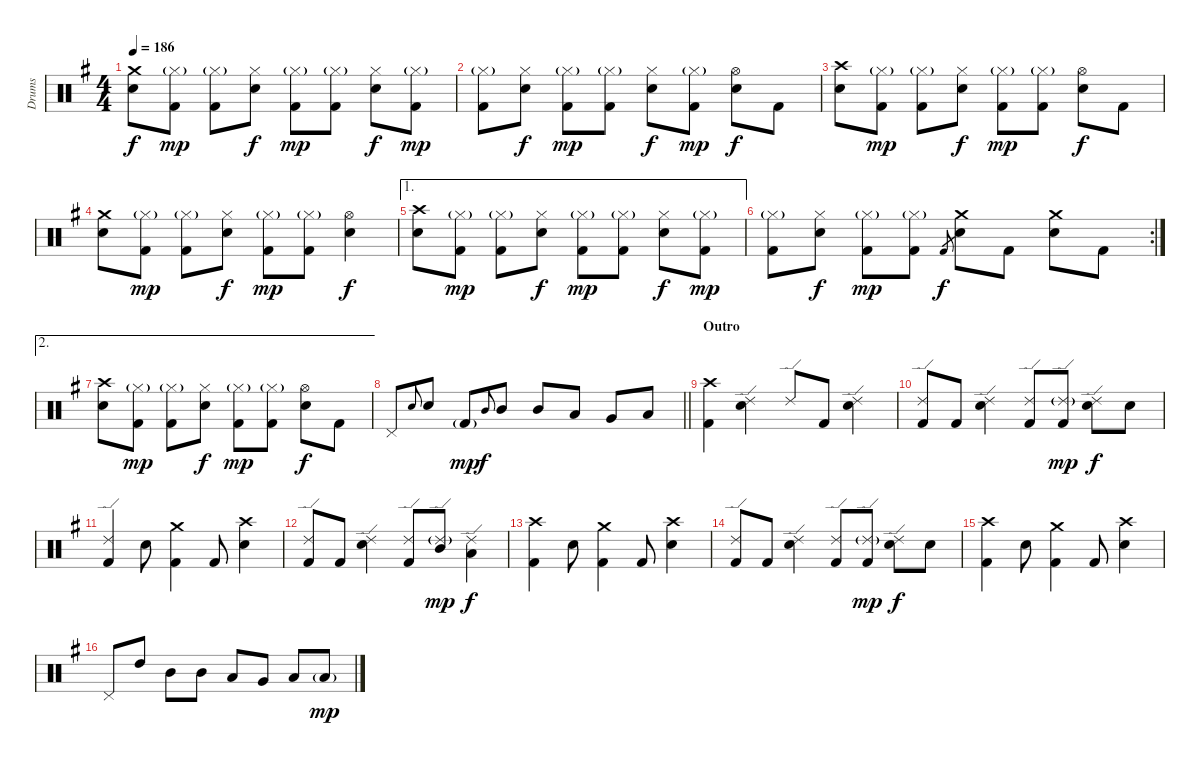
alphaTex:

\track ("Drums" "Drums") {instrument percussion}
\staff {score}
\articulation defaults
\ts (4 4)
\tempo 186
\clef neutral
\ks g
("Crash medium (hit)" "Snare (hit) 2").8{dy f} ("Hi-Hat (closed)"{g} "Kick (hit) 2").8{dy mp} ("Hi-Hat (closed)"{g} "Kick (hit) 2").8 ("Hi-Hat (closed)" "Snare (hit) 2").8{dy f} ("Hi-Hat (closed)"{g} "Kick (hit) 2").8{dy mp} ("Hi-Hat (closed)"{g} "Kick (hit) 2").8 ("Hi-Hat (closed)" "Snare (hit) 2").8{dy f} ("Hi-Hat (closed)"{g} "Kick (hit) 2").8{dy mp} |
("Hi-Hat (closed)"{g} "Kick (hit) 2").8 ("Hi-Hat (closed)" "Snare (hit) 2").8{dy f} ("Hi-Hat (closed)"{g} "Kick (hit) 2").8{dy mp} ("Hi-Hat (closed)"{g} "Kick (hit) 2").8 ("Hi-Hat (closed)" "Snare (hit) 2").8{dy f} ("Hi-Hat (closed)"{g} "Kick (hit) 2").8{dy mp} ("Hi-Hat (open)" "Snare (hit) 2").8{dy f} "Kick (hit) 2".8 |
("Crash high (hit)" "Snare (hit) 2").8 ("Hi-Hat (closed)"{g} "Kick (hit) 2").8{dy mp} ("Hi-Hat (closed)"{g} "Kick (hit) 2").8 ("Hi-Hat (closed)" "Snare (hit) 2").8{dy f} ("Hi-Hat (closed)"{g} "Kick (hit) 2").8{dy mp} ("Hi-Hat (closed)"{g} "Kick (hit) 2").8 ("Hi-Hat (open)" "Snare (hit) 2").8{dy f} "Kick (hit) 2".8 |
("Crash medium (hit)" "Snare (hit) 2").8 ("Hi-Hat (closed)"{g} "Kick (hit) 2").8{dy mp} ("Hi-Hat (closed)"{g} "Kick (hit) 2").8 ("Hi-Hat (closed)" "Snare (hit) 2").8{dy f} ("Hi-Hat (closed)"{g} "Kick (hit) 2").8{dy mp} ("Hi-Hat (closed)"{g} "Kick (hit) 2").8 ("Hi-Hat (open)" "Snare (hit) 2").4{dy f} |
\ae 1
("Crash high (hit)" "Snare (hit) 2").8 ("Hi-Hat (closed)"{g} "Kick (hit) 2").8{dy mp} ("Hi-Hat (closed)"{g} "Kick (hit) 2").8 ("Hi-Hat (closed)" "Snare (hit) 2").8{dy f} ("Hi-Hat (closed)"{g} "Kick (hit) 2").8{dy mp} ("Hi-Hat (closed)"{g} "Kick (hit) 2").8 ("Hi-Hat (closed)" "Snare (hit) 2").8{dy f} ("Hi-Hat (closed)"{g} "Kick (hit) 2").8{dy mp} |
\rc 2
("Hi-Hat (closed)"{g} "Kick (hit) 2").8 ("Hi-Hat (closed)" "Snare (hit) 2").8{dy f} ("Hi-Hat (closed)"{g} "Kick (hit) 2").8{dy mp} ("Hi-Hat (closed)"{g} "Kick (hit) 2").8 "Kick (hit) 2".8{gr dy f} ("Crash medium (hit)" "Snare (hit) 2").8 "Kick (hit) 2".8 ("Crash medium (hit)" "Snare (hit) 2").8 "Kick (hit) 2".8 |
\ae 2
("Crash high (hit)" "Snare (hit) 2").8 ("Hi-Hat (closed)"{g} "Kick (hit) 2").8{dy mp} ("Hi-Hat (closed)"{g} "Kick (hit) 2").8 ("Hi-Hat (closed)" "Snare (hit) 2").8{dy f} ("Hi-Hat (closed)"{g} "Kick (hit) 2").8{dy mp} ("Hi-Hat (closed)"{g} "Kick (hit) 2").8 ("Hi-Hat (open)" "Snare (hit) 2").8{dy f} "Kick (hit) 2".8 |
\barLineRight lightlight "Pedal Hi-Hat (hit)".8 "Snare (hit) 2".8{gr onbeat} "Snare (hit) 2".8 "Kick (hit) 2"{g}.8{dy mp} "Mid Tom (hit)".8{gr onbeat dy f} "Mid Tom (hit)".8 "Mid Tom (hit)".8 "Low Tom (hit)".8 "Very Low Tom (hit)".8 "Low Floor Tom (hit)".8
|
\section ("" "Outro")
("Crash high (hit)" "Kick (hit) 2").4 ("Ride (edge) 2" "Snare (hit) 2").4 "Ride (edge) 2".8 "Kick (hit) 2".8 ("Ride (edge) 2" "Snare (hit) 2").4 |
("Ride (edge) 2" "Kick (hit) 2").8 "Kick (hit) 2".8 ("Ride (edge) 2" "Snare (hit) 2").4 ("Ride (edge) 2" "Kick (hit) 2").8 ("Ride (edge) 2"{g} "Kick (hit) 2").8{dy mp} ("Ride (edge) 2" "Snare (hit) 2").8{dy f} "Snare (hit) 2".8 |
("Ride (edge) 2" "Kick (hit) 2").4 "Snare (hit) 2".8 ("Crash medium (hit)" "Kick (hit) 2").4 "Kick (hit) 2".8 ("Crash high (hit)" "Snare (hit) 2").4 |
("Ride (edge) 2" "Kick (hit) 2").8 "Kick (hit) 2".8 ("Ride (edge) 2" "Snare (hit) 2").4 ("Ride (edge) 2" "Kick (hit) 2").8 ("Ride (edge) 2"{g} "Mid Tom (hit)").8{dy mp} ("Ride (edge) 2" "Low Tom (hit)").4{dy f} |
("Crash high (hit)" "Kick (hit) 2").4 "Snare (hit) 2".8 ("Crash medium (hit)" "Kick (hit) 2").4 "Kick (hit) 2".8 ("Crash high (hit)" "Snare (hit) 2").4 |
("Ride (edge) 2" "Kick (hit) 2").8 "Kick (hit) 2".8 ("Ride (edge) 2" "Snare (hit) 2").4 ("Ride (edge) 2" "Kick (hit) 2").8 ("Ride (edge) 2"{g} "Kick (hit) 2").8{dy mp} ("Ride (edge) 2" "Snare (hit) 2").8{dy f} "Snare (hit) 2".8 |
("Crash high (hit)" "Kick (hit) 2").4 "Snare (hit) 2".8 ("Crash medium (hit)" "Kick (hit) 2").4 "Kick (hit) 2".8 ("Crash high (hit)" "Snare (hit) 2").4 |
"Pedal Hi-Hat (hit)".8 "High Tom (hit)".8 "Mid Tom (hit)".8 "Mid Tom (hit)".8 "Low Tom (hit)".8 "Very Low Tom (hit)".8 "Low Floor Tom (hit)".8 "Low Floor Tom (hit)"{g}.8{dy mp}
